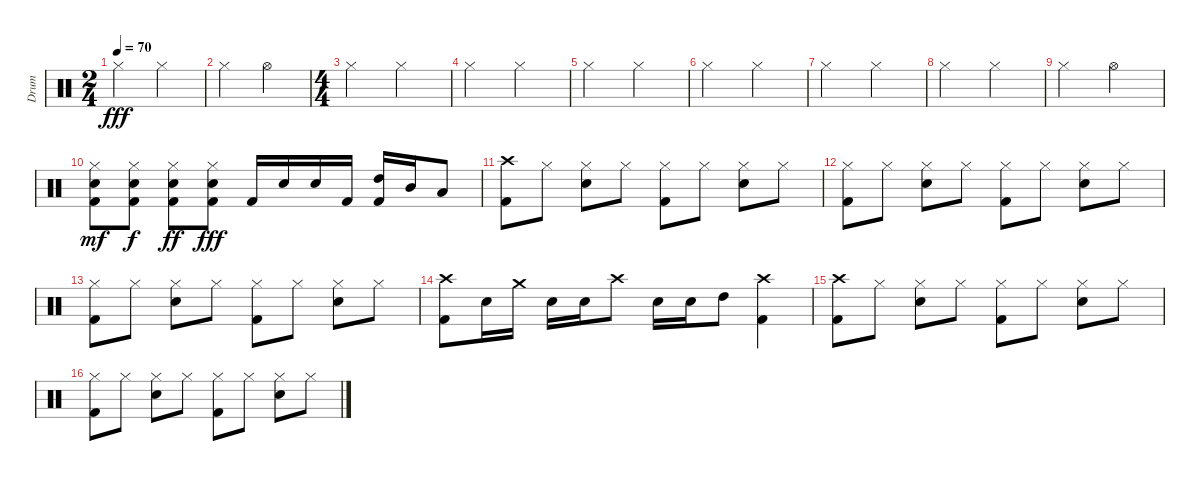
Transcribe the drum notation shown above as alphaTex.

\track ("Drum" "Drum") {instrument percussion}
\staff {score}
\articulation defaults
\ts (2 4)
\tempo 70
\clef neutral
\ks c "Hi-Hat (closed)".4{dy fff} "Hi-Hat (closed)".4
|
"Hi-Hat (closed)".4 "Hi-Hat (open)".4 |
\ts (4 4)
"Hi-Hat (closed)".2 "Hi-Hat (closed)".2 |
"Hi-Hat (closed)".2 "Hi-Hat (closed)".2 |
"Hi-Hat (closed)".2 "Hi-Hat (closed)".2 |
"Hi-Hat (closed)".2 "Hi-Hat (closed)".2 |
"Hi-Hat (closed)".2 "Hi-Hat (closed)".2 |
"Hi-Hat (closed)".2 "Hi-Hat (closed)".2 |
"Hi-Hat (closed)".2 "Hi-Hat (open)".2 |
("Hi-Hat (closed)" "Electric Snare (hit)" "Kick (hit) 2").8{dy mf} ("Hi-Hat (closed)" "Electric Snare (hit)" "Kick (hit) 2").8{dy f} ("Hi-Hat (closed)" "Electric Snare (hit)" "Kick (hit) 2").8{dy ff} ("Hi-Hat (closed)" "Electric Snare (hit)" "Kick (hit) 2").8{dy fff} "Kick (hit) 2".16 "Electric Snare (hit)".16 "Electric Snare (hit)".16 "Kick (hit) 2".16 ("High Tom (hit)" "Kick (hit) 2").16 "Mid Tom (hit)".16 "Low Tom (hit)".8 |
("Crash high (hit)" "Kick (hit) 2").8 "Hi-Hat (closed)".8 ("Hi-Hat (closed)" "Electric Snare (hit)").8 "Hi-Hat (closed)".8 ("Hi-Hat (closed)" "Kick (hit) 2").8 "Hi-Hat (closed)".8 ("Hi-Hat (closed)" "Electric Snare (hit)").8 "Hi-Hat (closed)".8 |
("Hi-Hat (closed)" "Kick (hit) 2").8 "Hi-Hat (closed)".8 ("Hi-Hat (closed)" "Electric Snare (hit)").8 "Hi-Hat (closed)".8 ("Hi-Hat (closed)" "Kick (hit) 2").8 "Hi-Hat (closed)".8 ("Hi-Hat (closed)" "Electric Snare (hit)").8 "Hi-Hat (closed)".8 |
("Hi-Hat (closed)" "Kick (hit) 2").8 "Hi-Hat (closed)".8 ("Hi-Hat (closed)" "Electric Snare (hit)").8 "Hi-Hat (closed)".8 ("Hi-Hat (closed)" "Kick (hit) 2").8 "Hi-Hat (closed)".8 ("Hi-Hat (closed)" "Electric Snare (hit)").8 "Hi-Hat (closed)".8 |
("Crash high (hit)" "Kick (hit) 2").8 "Electric Snare (hit)".16 "Crash medium (hit)".16 "Electric Snare (hit)".16 "Electric Snare (hit)".16 "Crash high (hit)".8 "Electric Snare (hit)".16 "Electric Snare (hit)".16 "High Tom (hit)".8 ("Crash high (hit)" "Kick (hit) 2").4 |
("Crash high (hit)" "Kick (hit) 2").8 "Hi-Hat (closed)".8 ("Hi-Hat (closed)" "Electric Snare (hit)").8 "Hi-Hat (closed)".8 ("Hi-Hat (closed)" "Kick (hit) 2").8 "Hi-Hat (closed)".8 ("Hi-Hat (closed)" "Electric Snare (hit)").8 "Hi-Hat (closed)".8 |
("Hi-Hat (closed)" "Kick (hit) 2").8 "Hi-Hat (closed)".8 ("Hi-Hat (closed)" "Electric Snare (hit)").8 "Hi-Hat (closed)".8 ("Hi-Hat (closed)" "Kick (hit) 2").8 "Hi-Hat (closed)".8 ("Hi-Hat (closed)" "Electric Snare (hit)").8 "Hi-Hat (closed)".8
